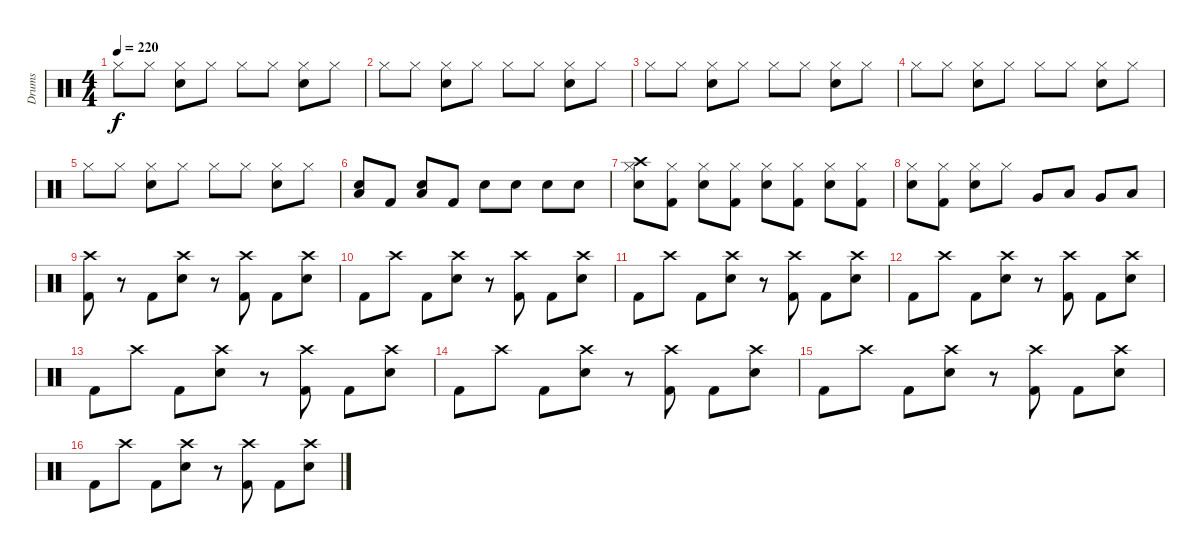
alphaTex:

\track ("Drums" "Drums") {instrument percussion}
\staff {score}
\articulation defaults
\ts (4 4)
\tempo 220
\clef neutral
\ks c "Hi-Hat (closed)".8{dy f} "Hi-Hat (closed)".8
("Hi-Hat (closed)" "Snare (hit) 2").8 "Hi-Hat (closed)".8 "Hi-Hat (closed)".8 "Hi-Hat (closed)".8 ("Hi-Hat (closed)" "Snare (hit) 2").8 "Hi-Hat (closed)".8 |
"Hi-Hat (closed)".8 "Hi-Hat (closed)".8 ("Hi-Hat (closed)" "Snare (hit) 2").8 "Hi-Hat (closed)".8 "Hi-Hat (closed)".8 "Hi-Hat (closed)".8 ("Hi-Hat (closed)" "Snare (hit) 2").8 "Hi-Hat (closed)".8 |
"Hi-Hat (closed)".8 "Hi-Hat (closed)".8 ("Hi-Hat (closed)" "Snare (hit) 2").8 "Hi-Hat (closed)".8 "Hi-Hat (closed)".8 "Hi-Hat (closed)".8 ("Hi-Hat (closed)" "Snare (hit) 2").8 "Hi-Hat (closed)".8 |
"Hi-Hat (closed)".8 "Hi-Hat (closed)".8 ("Hi-Hat (closed)" "Snare (hit) 2").8 "Hi-Hat (closed)".8 "Hi-Hat (closed)".8 "Hi-Hat (closed)".8 ("Hi-Hat (closed)" "Snare (hit) 2").8 "Hi-Hat (closed)".8 |
"Hi-Hat (closed)".8 "Hi-Hat (closed)".8 ("Hi-Hat (closed)" "Snare (hit) 2").8 "Hi-Hat (closed)".8 "Hi-Hat (closed)".8 "Hi-Hat (closed)".8 ("Hi-Hat (closed)" "Snare (hit) 2").8 "Hi-Hat (closed)".8 |
("Low Floor Tom (hit)" "Snare (hit) 2").8 "Kick (hit) 2".8 ("Low Floor Tom (hit)" "Snare (hit) 2").8 "Kick (hit) 2".8 "Snare (hit) 2".8 "Snare (hit) 2".8 "Snare (hit) 2".8 "Snare (hit) 2".8 |
("Crash high (hit)" "Hi-Hat (closed)" "Snare (hit) 2").8 ("Hi-Hat (closed)" "Kick (hit) 2").8 ("Hi-Hat (closed)" "Snare (hit) 2").8 ("Hi-Hat (closed)" "Kick (hit) 2").8 ("Hi-Hat (closed)" "Snare (hit) 2").8 ("Hi-Hat (closed)" "Kick (hit) 2").8 ("Hi-Hat (closed)" "Snare (hit) 2").8 ("Hi-Hat (closed)" "Kick (hit) 2").8 |
("Hi-Hat (closed)" "Snare (hit) 2").8 ("Hi-Hat (closed)" "Kick (hit) 2").8 ("Hi-Hat (closed)" "Snare (hit) 2").8 "Hi-Hat (closed)".8 "Very Low Tom (hit)".8 "Low Floor Tom (hit)".8 "Very Low Tom (hit)".8 "Low Floor Tom (hit)".8 |
("Crash high (hit)" "Kick (hit) 2").8 r.8 "Kick (hit) 2".8 ("Crash high (hit)" "Snare (hit) 2").8 r.8 ("Crash high (hit)" "Kick (hit) 2").8 "Kick (hit) 2".8 ("Crash high (hit)" "Snare (hit) 2").8 |
"Kick (hit) 2".8 "Crash high (hit)".8 "Kick (hit) 2".8 ("Crash high (hit)" "Snare (hit) 2").8 r.8 ("Crash high (hit)" "Kick (hit) 2").8 "Kick (hit) 2".8 ("Crash high (hit)" "Snare (hit) 2").8 |
"Kick (hit) 2".8 "Crash high (hit)".8 "Kick (hit) 2".8 ("Crash high (hit)" "Snare (hit) 2").8 r.8 ("Crash high (hit)" "Kick (hit) 2").8 "Kick (hit) 2".8 ("Crash high (hit)" "Snare (hit) 2").8 |
"Kick (hit) 2".8 "Crash high (hit)".8 "Kick (hit) 2".8 ("Crash high (hit)" "Snare (hit) 2").8 r.8 ("Crash high (hit)" "Kick (hit) 2").8 "Kick (hit) 2".8 ("Crash high (hit)" "Snare (hit) 2").8 |
"Kick (hit) 2".8 "Crash high (hit)".8 "Kick (hit) 2".8 ("Crash high (hit)" "Snare (hit) 2").8 r.8 ("Crash high (hit)" "Kick (hit) 2").8 "Kick (hit) 2".8 ("Crash high (hit)" "Snare (hit) 2").8 |
"Kick (hit) 2".8 "Crash high (hit)".8 "Kick (hit) 2".8 ("Crash high (hit)" "Snare (hit) 2").8 r.8 ("Crash high (hit)" "Kick (hit) 2").8 "Kick (hit) 2".8 ("Crash high (hit)" "Snare (hit) 2").8 |
"Kick (hit) 2".8 "Crash high (hit)".8 "Kick (hit) 2".8 ("Crash high (hit)" "Snare (hit) 2").8 r.8 ("Crash high (hit)" "Kick (hit) 2").8 "Kick (hit) 2".8 ("Crash high (hit)" "Snare (hit) 2").8 |
"Kick (hit) 2".8 "Crash high (hit)".8 "Kick (hit) 2".8 ("Crash high (hit)" "Snare (hit) 2").8 r.8 ("Crash high (hit)" "Kick (hit) 2").8 "Kick (hit) 2".8 ("Crash high (hit)" "Snare (hit) 2").8
